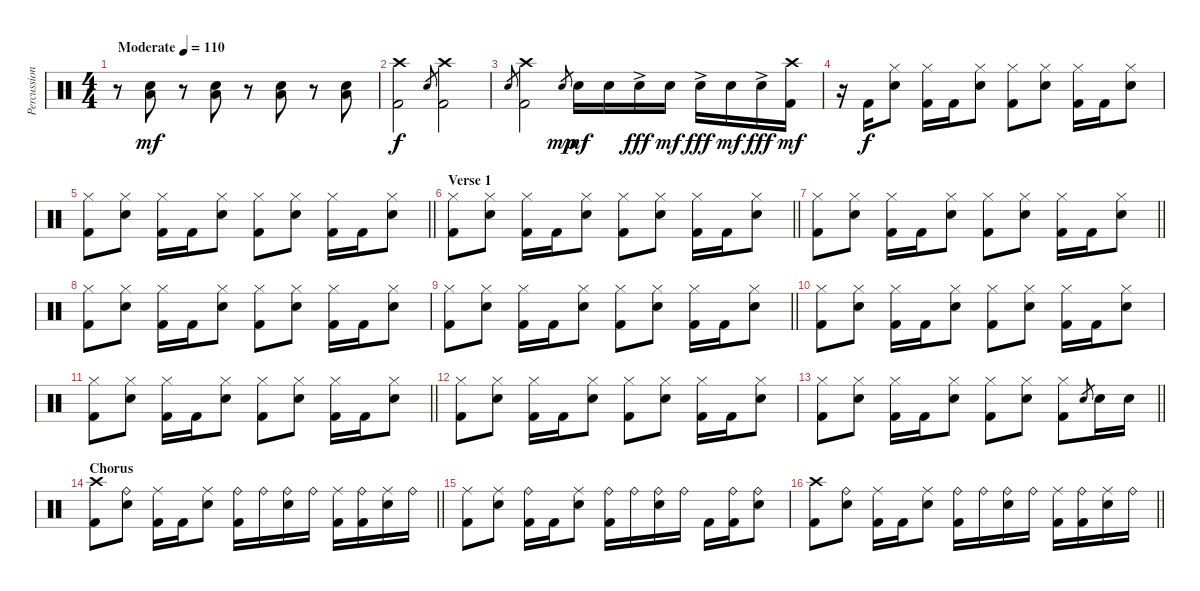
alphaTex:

\track ("Percussion" "Percussion") {instrument percussion}
\staff {score}
\articulation defaults
\ts (4 4)
\tempo (110 "Moderate")
\clef neutral
\ks c
r.8{dy mf} ("Electric Snare (hit)" "Low Floor Tom (hit)").8 r.8 ("Electric Snare (hit)" "Low Floor Tom (hit)").8 r.8 ("Electric Snare (hit)" "Low Floor Tom (hit)").8 r.8 ("Electric Snare (hit)" "Low Floor Tom (hit)").8 |
("Crash high (hit)" "Kick (hit) 2").2{dy f} "Electric Snare (hit)".8{gr} ("Crash high (hit)" "Kick (hit) 2").2 |
"Electric Snare (hit)".8{gr} ("Crash high (hit)" "Kick (hit) 2").2 "Electric Snare (hit)".8{gr dy mp} "Electric Snare (hit)".16{dy mf} "Electric Snare (hit)".16 "Electric Snare (hit)"{ac}.16{dy fff} "Electric Snare (hit)".16{dy mf} "Electric Snare (hit)"{ac}.16{dy fff} "Electric Snare (hit)".16{dy mf} "Electric Snare (hit)"{ac}.16{dy fff} ("Crash high (hit)" "Kick (hit) 2").16{dy mf} |
r.16 "Kick (hit) 2".16{dy f} ("Hi-Hat (closed)" "Electric Snare (hit)").8 ("Hi-Hat (closed)" "Kick (hit) 2").16 "Kick (hit) 2".16 ("Hi-Hat (closed)" "Electric Snare (hit)").8 ("Hi-Hat (closed)" "Kick (hit) 2").8 ("Hi-Hat (closed)" "Electric Snare (hit)").8 ("Hi-Hat (closed)" "Kick (hit) 2").16 "Kick (hit) 2".16 ("Hi-Hat (closed)" "Electric Snare (hit)").8 |
\barLineRight lightlight
("Hi-Hat (closed)" "Kick (hit) 2").8 ("Hi-Hat (closed)" "Electric Snare (hit)").8 ("Hi-Hat (closed)" "Kick (hit) 2").16 "Kick (hit) 2".16 ("Hi-Hat (closed)" "Electric Snare (hit)").8 ("Hi-Hat (closed)" "Kick (hit) 2").8 ("Hi-Hat (closed)" "Electric Snare (hit)").8 ("Hi-Hat (closed)" "Kick (hit) 2").16 "Kick (hit) 2".16 ("Hi-Hat (closed)" "Electric Snare (hit)").8 |
\section ("" "Verse 1")
\barLineRight lightlight
("Hi-Hat (closed)" "Kick (hit) 2").8 ("Hi-Hat (closed)" "Electric Snare (hit)").8 ("Hi-Hat (closed)" "Kick (hit) 2").16 "Kick (hit) 2".16 ("Hi-Hat (closed)" "Electric Snare (hit)").8 ("Hi-Hat (closed)" "Kick (hit) 2").8 ("Hi-Hat (closed)" "Electric Snare (hit)").8 ("Hi-Hat (closed)" "Kick (hit) 2").16 "Kick (hit) 2".16 ("Hi-Hat (closed)" "Electric Snare (hit)").8 |
\barLineRight lightlight
("Hi-Hat (closed)" "Kick (hit) 2").8 ("Hi-Hat (closed)" "Electric Snare (hit)").8 ("Hi-Hat (closed)" "Kick (hit) 2").16 "Kick (hit) 2".16 ("Hi-Hat (closed)" "Electric Snare (hit)").8 ("Hi-Hat (closed)" "Kick (hit) 2").8 ("Hi-Hat (closed)" "Electric Snare (hit)").8 ("Hi-Hat (closed)" "Kick (hit) 2").16 "Kick (hit) 2".16 ("Hi-Hat (closed)" "Electric Snare (hit)").8 |
("Hi-Hat (closed)" "Kick (hit) 2").8 ("Hi-Hat (closed)" "Electric Snare (hit)").8 ("Hi-Hat (closed)" "Kick (hit) 2").16 "Kick (hit) 2".16 ("Hi-Hat (closed)" "Electric Snare (hit)").8 ("Hi-Hat (closed)" "Kick (hit) 2").8 ("Hi-Hat (closed)" "Electric Snare (hit)").8 ("Hi-Hat (closed)" "Kick (hit) 2").16 "Kick (hit) 2".16 ("Hi-Hat (closed)" "Electric Snare (hit)").8 |
\barLineRight lightlight
("Hi-Hat (closed)" "Kick (hit) 2").8 ("Hi-Hat (closed)" "Electric Snare (hit)").8 ("Hi-Hat (closed)" "Kick (hit) 2").16 "Kick (hit) 2".16 ("Hi-Hat (closed)" "Electric Snare (hit)").8 ("Hi-Hat (closed)" "Kick (hit) 2").8 ("Hi-Hat (closed)" "Electric Snare (hit)").8 ("Hi-Hat (closed)" "Kick (hit) 2").16 "Kick (hit) 2".16 ("Hi-Hat (closed)" "Electric Snare (hit)").8 |
("Hi-Hat (closed)" "Kick (hit) 2").8 ("Hi-Hat (closed)" "Electric Snare (hit)").8 ("Hi-Hat (closed)" "Kick (hit) 2").16 "Kick (hit) 2".16 ("Hi-Hat (closed)" "Electric Snare (hit)").8 ("Hi-Hat (closed)" "Kick (hit) 2").8 ("Hi-Hat (closed)" "Electric Snare (hit)").8 ("Hi-Hat (closed)" "Kick (hit) 2").16 "Kick (hit) 2".16 ("Hi-Hat (closed)" "Electric Snare (hit)").8 |
\barLineRight lightlight
("Hi-Hat (closed)" "Kick (hit) 2").8 ("Hi-Hat (closed)" "Electric Snare (hit)").8 ("Hi-Hat (closed)" "Kick (hit) 2").16 "Kick (hit) 2".16 ("Hi-Hat (closed)" "Electric Snare (hit)").8 ("Hi-Hat (closed)" "Kick (hit) 2").8 ("Hi-Hat (closed)" "Electric Snare (hit)").8 ("Hi-Hat (closed)" "Kick (hit) 2").16 "Kick (hit) 2".16 ("Hi-Hat (closed)" "Electric Snare (hit)").8 |
("Hi-Hat (closed)" "Kick (hit) 2").8 ("Hi-Hat (closed)" "Electric Snare (hit)").8 ("Hi-Hat (closed)" "Kick (hit) 2").16 "Kick (hit) 2".16 ("Hi-Hat (closed)" "Electric Snare (hit)").8 ("Hi-Hat (closed)" "Kick (hit) 2").8 ("Hi-Hat (closed)" "Electric Snare (hit)").8 ("Hi-Hat (closed)" "Kick (hit) 2").16 "Kick (hit) 2".16 ("Hi-Hat (closed)" "Electric Snare (hit)").8 |
\barLineRight lightlight
("Hi-Hat (closed)" "Kick (hit) 2").8 ("Hi-Hat (closed)" "Electric Snare (hit)").8 ("Hi-Hat (closed)" "Kick (hit) 2").16 "Kick (hit) 2".16 ("Hi-Hat (closed)" "Electric Snare (hit)").8 ("Hi-Hat (closed)" "Kick (hit) 2").8 ("Hi-Hat (closed)" "Electric Snare (hit)").8 ("Hi-Hat (closed)" "Kick (hit) 2").8 "Electric Snare (hit)".8{gr} "Electric Snare (hit)".16 "Electric Snare (hit)".16 |
\section ("" "Chorus")
\barLineRight lightlight
("Crash high (hit)" "Kick (hit) 2").8 ("Ride (bell)" "Electric Snare (hit)").8 ("Ride (middle)" "Kick (hit) 2").16 "Kick (hit) 2".16 ("Ride (middle)" "Electric Snare (hit)").8 ("Ride (bell)" "Kick (hit) 2").16 "Ride (bell)".16 ("Ride (bell)" "Electric Snare (hit)").16 "Ride (bell)".16 ("Ride (middle)" "Kick (hit) 2").16 ("Ride (bell)" "Kick (hit) 2").16 ("Ride (middle)" "Electric Snare (hit)").16 "Ride (bell)".16 |
("Ride (middle)" "Kick (hit) 2").8 ("Ride (middle)" "Electric Snare (hit)").8 ("Ride (bell)" "Kick (hit) 2").16 "Kick (hit) 2".16 ("Ride (middle)" "Electric Snare (hit)").8 ("Ride (bell)" "Kick (hit) 2").16 "Ride (bell)".16 ("Ride (bell)" "Electric Snare (hit)").16 "Ride (bell)".16 "Kick (hit) 2".16 ("Ride (bell)" "Kick (hit) 2").16 ("Ride (bell)" "Electric Snare (hit)").8 |
\barLineRight lightlight
("Crash high (hit)" "Kick (hit) 2").8 ("Ride (bell)" "Electric Snare (hit)").8 ("Ride (middle)" "Kick (hit) 2").16 "Kick (hit) 2".16 ("Ride (middle)" "Electric Snare (hit)").8 ("Ride (bell)" "Kick (hit) 2").16 "Ride (bell)".16 ("Ride (bell)" "Electric Snare (hit)").16 "Ride (bell)".16 ("Ride (middle)" "Kick (hit) 2").16 ("Ride (bell)" "Kick (hit) 2").16 ("Ride (middle)" "Electric Snare (hit)").16 "Ride (bell)".16
